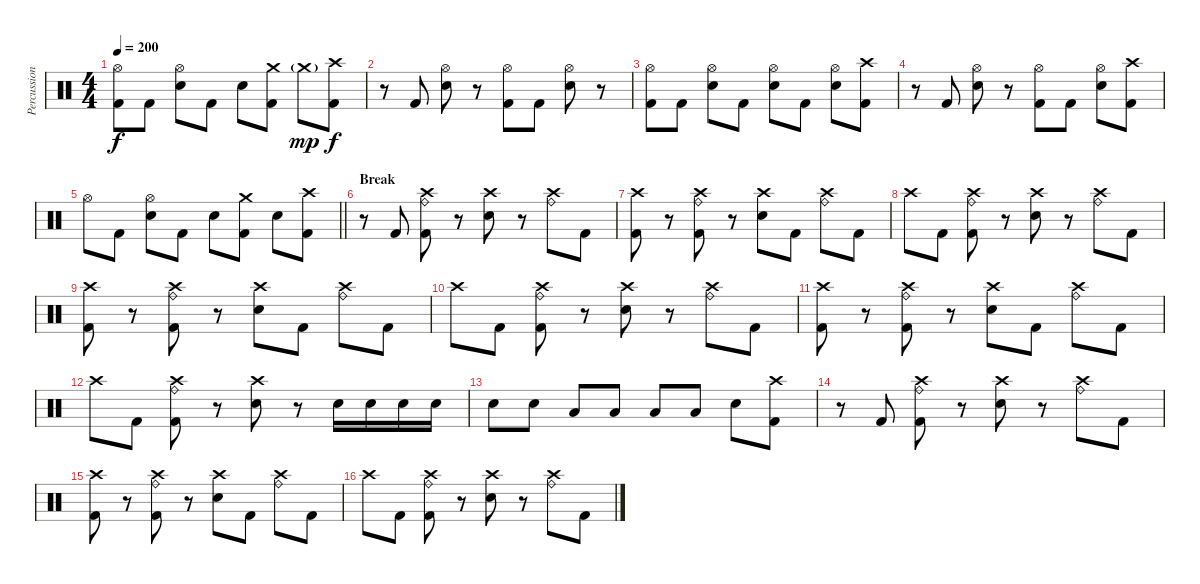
\track ("Percussion" "Percussion") {instrument percussion}
\staff {score}
\articulation defaults
\ts (4 4)
\tempo 200
\clef neutral
\ks c
("Hi-Hat (open)" "Kick (hit) 2").8{dy f} "Kick (hit) 2".8 ("Hi-Hat (open)" "Electric Snare (hit)").8 "Kick (hit) 2".8 "Electric Snare (hit)".8 ("Crash medium (hit)" "Kick (hit) 2").8 "Crash medium (hit)"{g}.8{dy mp volume 0} ("Crash high (hit)" "Kick (hit) 2").8{dy f volume 13} |
r.8 "Kick (hit) 2".8 ("Hi-Hat (open)" "Electric Snare (hit)").8 r.8 ("Hi-Hat (open)" "Kick (hit) 2").8 "Kick (hit) 2".8 ("Hi-Hat (open)" "Electric Snare (hit)").8 r.8 |
("Hi-Hat (open)" "Kick (hit) 2").8 "Kick (hit) 2".8 ("Hi-Hat (open)" "Electric Snare (hit)").8 "Kick (hit) 2".8 ("Hi-Hat (open)" "Electric Snare (hit)").8 "Kick (hit) 2".8 ("Hi-Hat (open)" "Electric Snare (hit)").8 ("Crash high (hit)" "Kick (hit) 2").8 |
r.8 "Kick (hit) 2".8 ("Hi-Hat (open)" "Electric Snare (hit)").8 r.8 ("Hi-Hat (open)" "Kick (hit) 2").8 "Kick (hit) 2".8 ("Hi-Hat (open)" "Electric Snare (hit)").8 ("Crash high (hit)" "Kick (hit) 2").8 |
\barLineRight lightlight "Hi-Hat (open)".8 "Kick (hit) 2".8
("Hi-Hat (open)" "Electric Snare (hit)").8 "Kick (hit) 2".8 "Electric Snare (hit)".8 ("Crash medium (hit)" "Kick (hit) 2").8 "Electric Snare (hit)".8 ("Crash high (hit)" "Kick (hit) 2").8 |
\section ("" "Break")
r.8 "Kick (hit) 2".8 ("Crash high (hit)" "Ride (bell)" "Kick (hit) 2").8 r.8 ("Crash high (hit)" "Electric Snare (hit)").8 r.8 ("Crash high (hit)" "Ride (bell)").8 "Kick (hit) 2".8 |
("Crash high (hit)" "Kick (hit) 2").8 r.8 ("Crash high (hit)" "Ride (bell)" "Kick (hit) 2").8 r.8 ("Crash high (hit)" "Electric Snare (hit)").8 "Kick (hit) 2".8 ("Crash high (hit)" "Ride (bell)").8 "Kick (hit) 2".8 |
"Crash high (hit)".8 "Kick (hit) 2".8 ("Crash high (hit)" "Ride (bell)" "Kick (hit) 2").8 r.8 ("Crash high (hit)" "Electric Snare (hit)").8 r.8 ("Crash high (hit)" "Ride (bell)").8 "Kick (hit) 2".8 |
("Crash high (hit)" "Kick (hit) 2").8 r.8 ("Crash high (hit)" "Ride (bell)" "Kick (hit) 2").8 r.8 ("Crash high (hit)" "Electric Snare (hit)").8 "Kick (hit) 2".8 ("Crash high (hit)" "Ride (bell)").8 "Kick (hit) 2".8 |
"Crash high (hit)".8 "Kick (hit) 2".8 ("Crash high (hit)" "Ride (bell)" "Kick (hit) 2").8 r.8 ("Crash high (hit)" "Electric Snare (hit)").8 r.8 ("Crash high (hit)" "Ride (bell)").8 "Kick (hit) 2".8 |
("Crash high (hit)" "Kick (hit) 2").8 r.8 ("Crash high (hit)" "Ride (bell)" "Kick (hit) 2").8 r.8 ("Crash high (hit)" "Electric Snare (hit)").8 "Kick (hit) 2".8 ("Crash high (hit)" "Ride (bell)").8 "Kick (hit) 2".8 |
"Crash high (hit)".8 "Kick (hit) 2".8 ("Crash high (hit)" "Ride (bell)" "Kick (hit) 2").8 r.8 ("Crash high (hit)" "Electric Snare (hit)").8 r.8 "Electric Snare (hit)".16 "Electric Snare (hit)".16 "Electric Snare (hit)".16 "Electric Snare (hit)".16 |
"Electric Snare (hit)".8 "Electric Snare (hit)".8 "Low Tom (hit)".8 "Low Tom (hit)".8 "Low Floor Tom (hit)".8 "Low Floor Tom (hit)".8 "Electric Snare (hit)".8 ("Crash high (hit)" "Kick (hit) 2").8 |
r.8 "Kick (hit) 2".8 ("Crash high (hit)" "Ride (bell)" "Kick (hit) 2").8 r.8 ("Crash high (hit)" "Electric Snare (hit)").8 r.8 ("Crash high (hit)" "Ride (bell)").8 "Kick (hit) 2".8 |
("Crash high (hit)" "Kick (hit) 2").8 r.8 ("Crash high (hit)" "Ride (bell)" "Kick (hit) 2").8 r.8 ("Crash high (hit)" "Electric Snare (hit)").8 "Kick (hit) 2".8 ("Crash high (hit)" "Ride (bell)").8 "Kick (hit) 2".8 |
"Crash high (hit)".8 "Kick (hit) 2".8 ("Crash high (hit)" "Ride (bell)" "Kick (hit) 2").8 r.8 ("Crash high (hit)" "Electric Snare (hit)").8 r.8 ("Crash high (hit)" "Ride (bell)").8 "Kick (hit) 2".8
